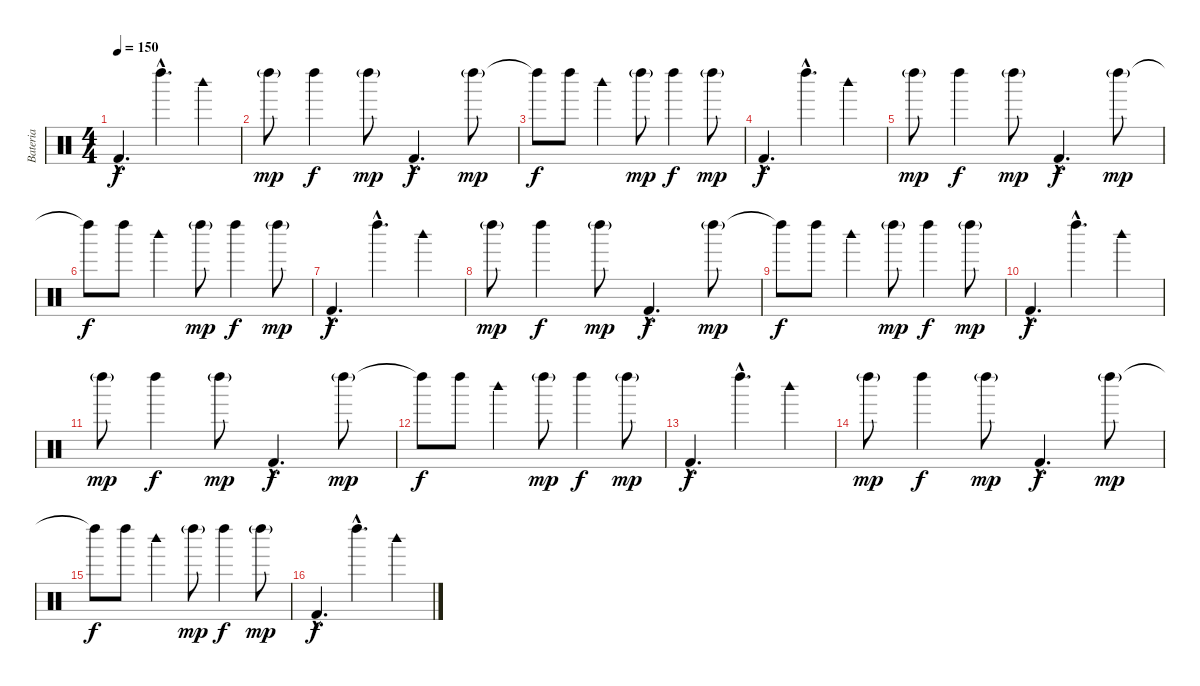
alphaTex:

\track ("Bateria" "Bateria") {instrument percussion}
\staff {score}
\articulation defaults
\ts (4 4)
\tempo 150
\clef neutral
\ks c "Kick (hit) 2"{hac}.4{d dy f} "Left Maraca (hit)"{hac}.4{d} "Woodblock high (hit)".4
|
"Left Maraca (hit)"{g}.8{dy mp} "Left Maraca (hit)".4{dy f} "Left Maraca (hit)"{g}.8{dy mp} "Kick (hit) 2"{hac}.4{d dy f} "Left Maraca (hit)"{g}.8{dy mp} |
"Left Maraca (hit)"{t}.8{dy f} "Left Maraca (hit)".8 "Woodblock high (hit)".4 "Left Maraca (hit)"{g}.8{dy mp} "Left Maraca (hit)".4{dy f} "Left Maraca (hit)"{g}.8{dy mp} |
"Kick (hit) 2"{hac}.4{d dy f} "Left Maraca (hit)"{hac}.4{d} "Woodblock high (hit)".4 |
"Left Maraca (hit)"{g}.8{dy mp} "Left Maraca (hit)".4{dy f} "Left Maraca (hit)"{g}.8{dy mp} "Kick (hit) 2"{hac}.4{d dy f} "Left Maraca (hit)"{g}.8{dy mp} |
"Left Maraca (hit)"{t}.8{dy f} "Left Maraca (hit)".8 "Woodblock high (hit)".4 "Left Maraca (hit)"{g}.8{dy mp} "Left Maraca (hit)".4{dy f} "Left Maraca (hit)"{g}.8{dy mp} |
"Kick (hit) 2"{hac}.4{d dy f} "Left Maraca (hit)"{hac}.4{d} "Woodblock high (hit)".4 |
"Left Maraca (hit)"{g}.8{dy mp} "Left Maraca (hit)".4{dy f} "Left Maraca (hit)"{g}.8{dy mp} "Kick (hit) 2"{hac}.4{d dy f} "Left Maraca (hit)"{g}.8{dy mp} |
"Left Maraca (hit)"{t}.8{dy f} "Left Maraca (hit)".8 "Woodblock high (hit)".4 "Left Maraca (hit)"{g}.8{dy mp} "Left Maraca (hit)".4{dy f} "Left Maraca (hit)"{g}.8{dy mp} |
"Kick (hit) 2"{hac}.4{d dy f} "Left Maraca (hit)"{hac}.4{d} "Woodblock high (hit)".4 |
"Left Maraca (hit)"{g}.8{dy mp} "Left Maraca (hit)".4{dy f} "Left Maraca (hit)"{g}.8{dy mp} "Kick (hit) 2"{hac}.4{d dy f} "Left Maraca (hit)"{g}.8{dy mp} |
"Left Maraca (hit)"{t}.8{dy f} "Left Maraca (hit)".8 "Woodblock high (hit)".4 "Left Maraca (hit)"{g}.8{dy mp} "Left Maraca (hit)".4{dy f} "Left Maraca (hit)"{g}.8{dy mp} |
"Kick (hit) 2"{hac}.4{d dy f} "Left Maraca (hit)"{hac}.4{d} "Woodblock high (hit)".4 |
"Left Maraca (hit)"{g}.8{dy mp} "Left Maraca (hit)".4{dy f} "Left Maraca (hit)"{g}.8{dy mp} "Kick (hit) 2"{hac}.4{d dy f} "Left Maraca (hit)"{g}.8{dy mp} |
"Left Maraca (hit)"{t}.8{dy f} "Left Maraca (hit)".8 "Woodblock high (hit)".4 "Left Maraca (hit)"{g}.8{dy mp} "Left Maraca (hit)".4{dy f} "Left Maraca (hit)"{g}.8{dy mp} |
"Kick (hit) 2"{hac}.4{d dy f} "Left Maraca (hit)"{hac}.4{d} "Woodblock high (hit)".4
